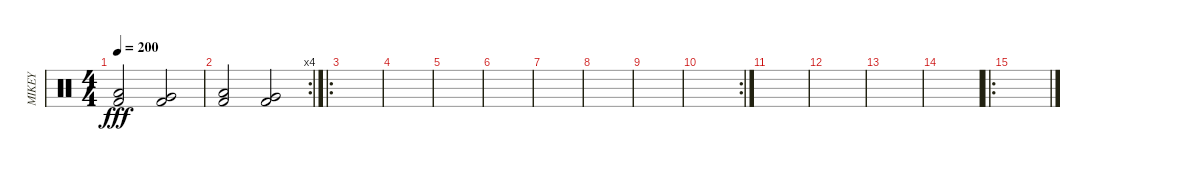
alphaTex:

\track ("MIKEY" "MIKEY") {instrument percussion}
\staff {score}
\articulation defaults
\ts (4 4)
\tempo 200
\clef neutral
\ks c
("Kick (hit) 2" "Low Floor Tom (hit)").2{dy fff} ("Kick (hit) 2" "Very Low Tom (hit)").2 |
\rc 4
("Kick (hit) 2" "Low Floor Tom (hit)").2 ("Kick (hit) 2" "Very Low Tom (hit)").2 |
\ro
|
|
|
|
|
|
|
\rc 2
|
|
|
|
|
\ro
